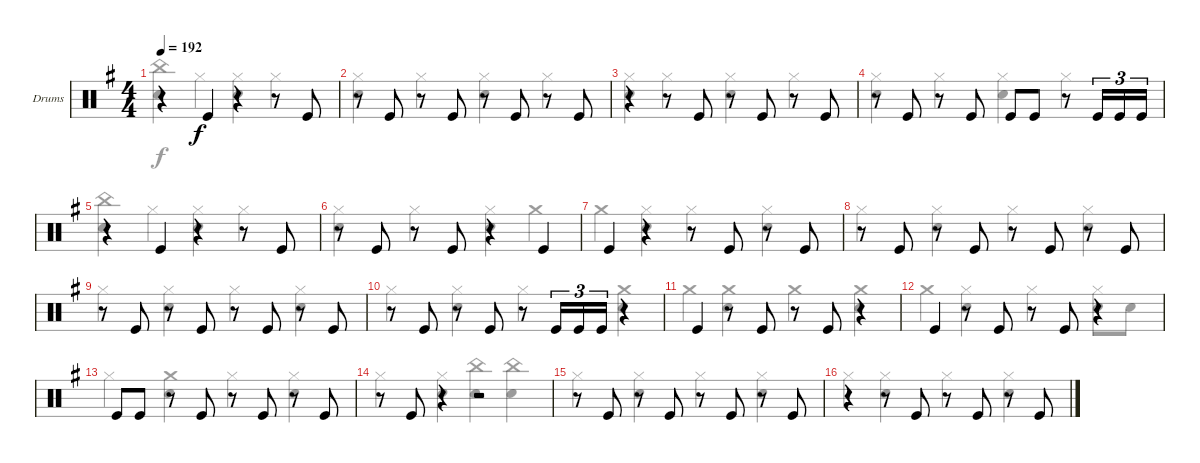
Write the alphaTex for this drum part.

\bracketExtendMode groupsimilarinstruments
\firstSystemTrackNameOrientation horizontal
\otherSystemsTrackNameOrientation horizontal
\track ("Drumkit" "Drums") {instrument percussion}
\staff {score}
\articulation defaults
\voice
\ts (4 4)
\tempo 192
\clef neutral
\scale
1.04288
\ks g
r.4{dy f} "Kick (hit)".4 r.4 r.8 "Kick (hit)".8 |
\scale
0.957125 r.8 "Kick (hit)".8 r.8 "Kick (hit)".8 r.8 "Kick (hit)".8 r.8 "Kick (hit)".8 |
\scale
1.04288 r.4 r.8 "Kick (hit)".8 r.8 "Kick (hit)".8 r.8 "Kick (hit)".8 |
\scale
0.957125 r.8 "Kick (hit)".8 r.8 "Kick (hit)".8 "Kick (hit)".8 "Kick (hit)".8 r.8 "Kick (hit)".16{tu (3 2)} "Kick (hit)".16{tu (3 2)} "Kick (hit)".16{tu (3 2)} |
\scale
1.04288 r.4 "Kick (hit)".4 r.4 r.8 "Kick (hit)".8 |
\scale
0.957125 r.8 "Kick (hit)".8 r.8 "Kick (hit)".8 r.4 "Kick (hit)".4 |
\scale
1.04288 "Kick (hit)".4 r.4 r.8 "Kick (hit)".8 r.8 "Kick (hit)".8 |
\scale
0.957125 r.8 "Kick (hit)".8 r.8 "Kick (hit)".8 r.8 "Kick (hit)".8 r.8 "Kick (hit)".8 |
\scale
1.04288 r.8 "Kick (hit)".8 r.8 "Kick (hit)".8 r.8 "Kick (hit)".8 r.8 "Kick (hit)".8 |
\scale
0.957125 r.8 "Kick (hit)".8 r.8 "Kick (hit)".8 r.8 "Kick (hit)".16{tu (3 2)} "Kick (hit)".16{tu (3 2)} "Kick (hit)".16{tu (3 2)} r.4 |
\scale
1.04288 "Kick (hit)".4 r.8 "Kick (hit)".8 r.8 "Kick (hit)".8 r.4 |
\scale
0.957125 "Kick (hit)".4 r.8 "Kick (hit)".8 r.8 "Kick (hit)".8 r.4 |
\scale
1.04288 "Kick (hit)".8 "Kick (hit)".8 r.8 "Kick (hit)".8 r.8 "Kick (hit)".8 r.8 "Kick (hit)".8 |
\scale
0.957125 r.8 "Kick (hit)".8 r.4 r.2 |
\scale
1.04288 r.8 "Kick (hit)".8 r.8 "Kick (hit)".8 r.8 "Kick (hit)".8 r.8 "Kick (hit)".8 |
\scale
0.957125 r.4 r.8 "Kick (hit)".8 r.8 "Kick (hit)".8 r.8 "Kick (hit)".8
\voice
\clef neutral
\ottava regular
\simile none
\scale
1.04288
\ks g
("China (hit)" "Snare (hit) 2").4{dy f} "Hi-Hat (closed)".4 ("Hi-Hat (closed)" "Snare (hit) 2").4 "Hi-Hat (closed)".4 |
\scale
0.957125 ("Hi-Hat (closed)" "Snare (hit) 2").4 "Hi-Hat (closed)".4 ("Hi-Hat (closed)" "Snare (hit) 2").4 "Hi-Hat (closed)".4 |
\scale
1.04288 ("Hi-Hat (closed)" "Snare (hit) 2").4 "Hi-Hat (closed)".4 ("Hi-Hat (closed)" "Snare (hit) 2").4 "Hi-Hat (closed)".4 |
\scale
0.957125 ("Hi-Hat (closed)" "Snare (hit) 2").4 "Hi-Hat (closed)".4 ("Hi-Hat (closed)" "Snare (hit) 2").4 "Hi-Hat (closed)".4 |
\scale
1.04288 ("China (hit)" "Snare (hit) 2").4 "Hi-Hat (closed)".4 ("Hi-Hat (closed)" "Snare (hit) 2").4 "Hi-Hat (closed)".4 |
\scale
0.957125 ("Hi-Hat (closed)" "Snare (hit) 2").4 "Hi-Hat (closed)".4 ("Hi-Hat (closed)" "Snare (hit) 2").4 "Crash medium (hit)".4 |
\scale
1.04288 "Crash medium (hit)".4 ("Hi-Hat (closed)" "Snare (hit) 2").4 "Hi-Hat (closed)".4 ("Hi-Hat (closed)" "Snare (hit) 2").4 |
\scale
0.957125 "Hi-Hat (closed)".4 ("Hi-Hat (closed)" "Snare (hit) 2").4 "Hi-Hat (closed)".4 ("Hi-Hat (closed)" "Snare (hit) 2").4 |
\scale
1.04288 "Hi-Hat (closed)".4 ("Hi-Hat (closed)" "Snare (hit) 2").4 "Hi-Hat (closed)".4 ("Hi-Hat (closed)" "Snare (hit) 2").4 |
\scale
0.957125 "Hi-Hat (closed)".4 ("Hi-Hat (closed)" "Snare (hit) 2").4 "Hi-Hat (closed)".4 ("Crash medium (hit)" "Snare (hit) 2").4 |
\scale
1.04288 "Crash medium (hit)".4 ("Crash medium (hit)" "Snare (hit) 2").4 "Crash medium (hit)".4 ("Crash medium (hit)" "Snare (hit) 2").4 |
\scale
0.957125 "Crash medium (hit)".4 ("Hi-Hat (closed)" "Snare (hit) 2").4 "Hi-Hat (closed)".4 ("Hi-Hat (closed)" "Snare (hit) 2").8 "Snare (hit) 2".8 |
\scale
1.04288 "Hi-Hat (closed)".4 ("Crash medium (hit)" "Snare (hit) 2").4 "Hi-Hat (closed)".4 ("Hi-Hat (closed)" "Snare (hit) 2").4 |
\scale
0.957125 "Hi-Hat (closed)".4 ("Hi-Hat (closed)" "Snare (hit) 2").4 ("China (hit)" "Snare (hit) 2").4 ("China (hit)" "Snare (hit) 2").4 |
\scale
1.04288 "Hi-Hat (closed)".4 ("Hi-Hat (closed)" "Snare (hit) 2").4 "Hi-Hat (closed)".4 ("Hi-Hat (closed)" "Snare (hit) 2").4 |
\scale
0.957125 "Hi-Hat (closed)".4 ("Hi-Hat (closed)" "Snare (hit) 2").4 "Hi-Hat (closed)".4 ("Hi-Hat (closed)" "Snare (hit) 2").4
